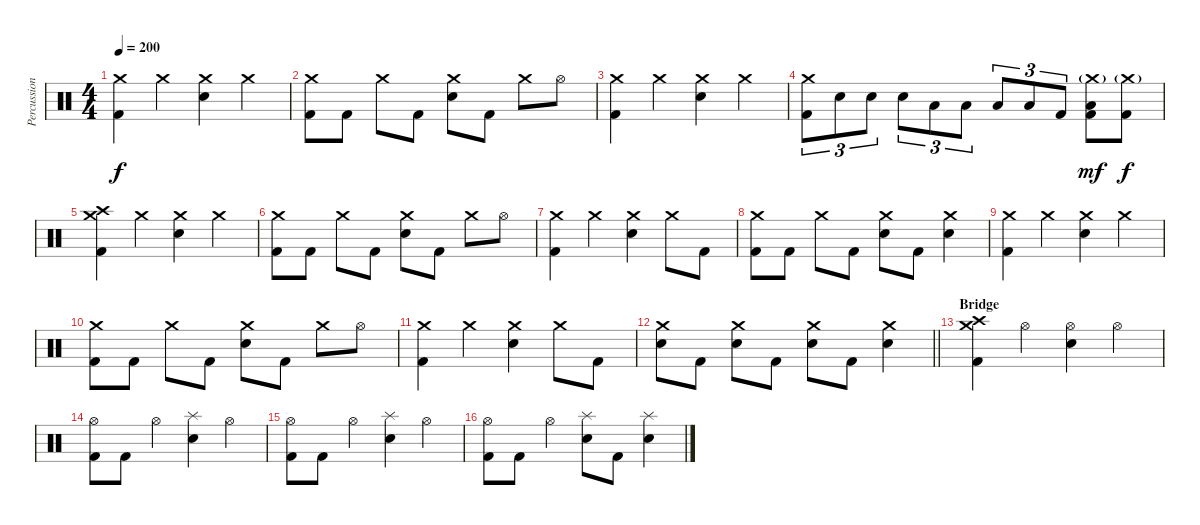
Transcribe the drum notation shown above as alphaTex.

\track ("Percussion" "Percussion") {instrument percussion}
\staff {score}
\articulation defaults
\ts (4 4)
\tempo 200
\clef neutral
\ks c
("Crash medium (hit)" "Kick (hit) 2").4{dy f} "Crash medium (hit)".4 ("Crash medium (hit)" "Electric Snare (hit)").4 "Crash medium (hit)".4 |
("Crash medium (hit)" "Kick (hit) 2").8 "Kick (hit) 2".8 "Crash medium (hit)".8 "Kick (hit) 2".8 ("Crash medium (hit)" "Electric Snare (hit)").8 "Kick (hit) 2".8 "Crash medium (hit)".8 "Hi-Hat (open)".8 |
("Crash medium (hit)" "Kick (hit) 2").4 "Crash medium (hit)".4 ("Crash medium (hit)" "Electric Snare (hit)").4 "Crash medium (hit)".4 |
("Crash medium (hit)" "Kick (hit) 2").8{tu (3 2)} "Electric Snare (hit)".8{tu (3 2)} "Electric Snare (hit)".8{tu (3 2)} "Electric Snare (hit)".8{tu (3 2)} "Low Tom (hit)".8{tu (3 2)} "Low Tom (hit)".8{tu (3 2)} "Low Tom (hit)".8{tu (3 2)} "Low Tom (hit)".8{tu (3 2)} "Kick (hit) 2".8{tu (3 2)} ("Crash medium (hit)"{g} "Low Tom (hit)" "Kick (hit) 2").8{dy mf} ("Crash medium (hit)"{g} "Kick (hit) 2").8{dy f} |
("Crash medium (hit)" "Crash high (hit)" "Kick (hit) 2").4 "Crash medium (hit)".4 ("Crash medium (hit)" "Electric Snare (hit)").4 "Crash medium (hit)".4 |
("Crash medium (hit)" "Kick (hit) 2").8 "Kick (hit) 2".8 "Crash medium (hit)".8 "Kick (hit) 2".8 ("Crash medium (hit)" "Electric Snare (hit)").8 "Kick (hit) 2".8 "Crash medium (hit)".8 "Hi-Hat (open)".8 |
("Crash medium (hit)" "Kick (hit) 2").4 "Crash medium (hit)".4 ("Crash medium (hit)" "Electric Snare (hit)").4 "Crash medium (hit)".8 "Kick (hit) 2".8 |
("Crash medium (hit)" "Kick (hit) 2").8 "Kick (hit) 2".8 "Crash medium (hit)".8 "Kick (hit) 2".8 ("Crash medium (hit)" "Electric Snare (hit)").8 "Kick (hit) 2".8 ("Crash medium (hit)" "Electric Snare (hit)").4 |
("Crash medium (hit)" "Kick (hit) 2").4 "Crash medium (hit)".4 ("Crash medium (hit)" "Electric Snare (hit)").4 "Crash medium (hit)".4 |
("Crash medium (hit)" "Kick (hit) 2").8 "Kick (hit) 2".8 "Crash medium (hit)".8 "Kick (hit) 2".8 ("Crash medium (hit)" "Electric Snare (hit)").8 "Kick (hit) 2".8 "Crash medium (hit)".8 "Hi-Hat (open)".8 |
("Crash medium (hit)" "Kick (hit) 2").4 "Crash medium (hit)".4 ("Crash medium (hit)" "Electric Snare (hit)").4 "Crash medium (hit)".8 "Kick (hit) 2".8 |
\barLineRight lightlight
("Crash medium (hit)" "Electric Snare (hit)").8 "Kick (hit) 2".8 ("Crash medium (hit)" "Electric Snare (hit)").8 "Kick (hit) 2".8 ("Crash medium (hit)" "Electric Snare (hit)").8 "Kick (hit) 2".8 ("Crash medium (hit)" "Electric Snare (hit)").4 |
\section ("" "Bridge")
("Crash medium (hit)" "Crash high (hit)" "Kick (hit) 2").4 "Hi-Hat (open)".4 ("Hi-Hat (open)" "Electric Snare (hit)").4 "Hi-Hat (open)".4 |
("Hi-Hat (open)" "Kick (hit) 2").8 "Kick (hit) 2".8 "Hi-Hat (open)".4 ("Splash (hit)" "Electric Snare (hit)").4 "Hi-Hat (open)".4 |
("Hi-Hat (open)" "Kick (hit) 2").8 "Kick (hit) 2".8 "Hi-Hat (open)".4 ("Splash (hit)" "Electric Snare (hit)").4 "Hi-Hat (open)".4 |
("Hi-Hat (open)" "Kick (hit) 2").8 "Kick (hit) 2".8 "Hi-Hat (open)".4 ("Splash (hit)" "Electric Snare (hit)").8 "Kick (hit) 2".8 ("Splash (hit)" "Electric Snare (hit)").4
